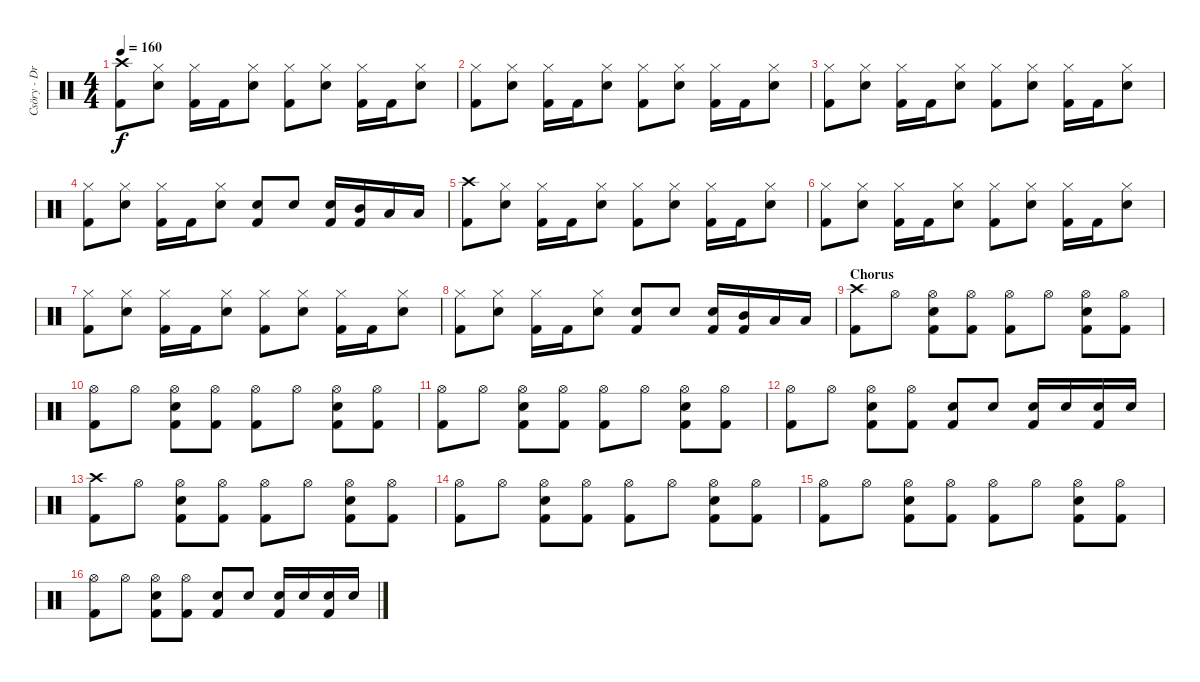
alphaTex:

\track ("Csöry - DrumZ" "Csöry - Dr") {instrument percussion}
\staff {score}
\articulation defaults
\ts (4 4)
\tempo 160
\clef neutral
\ks c
("Crash high (hit)" "Kick (hit) 2").8{dy f} ("Hi-Hat (closed)" "Snare (hit) 2").8 ("Hi-Hat (closed)" "Kick (hit) 2").16 "Kick (hit) 2".16 ("Hi-Hat (closed)" "Snare (hit) 2").8 ("Hi-Hat (closed)" "Kick (hit) 2").8 ("Hi-Hat (closed)" "Snare (hit) 2").8 ("Hi-Hat (closed)" "Kick (hit) 2").16 "Kick (hit) 2".16 ("Hi-Hat (closed)" "Snare (hit) 2").8 |
("Hi-Hat (closed)" "Kick (hit) 2").8 ("Hi-Hat (closed)" "Snare (hit) 2").8 ("Hi-Hat (closed)" "Kick (hit) 2").16 "Kick (hit) 2".16 ("Hi-Hat (closed)" "Snare (hit) 2").8 ("Hi-Hat (closed)" "Kick (hit) 2").8 ("Hi-Hat (closed)" "Snare (hit) 2").8 ("Hi-Hat (closed)" "Kick (hit) 2").16 "Kick (hit) 2".16 ("Hi-Hat (closed)" "Snare (hit) 2").8 |
("Hi-Hat (closed)" "Kick (hit) 2").8 ("Hi-Hat (closed)" "Snare (hit) 2").8 ("Hi-Hat (closed)" "Kick (hit) 2").16 "Kick (hit) 2".16 ("Hi-Hat (closed)" "Snare (hit) 2").8 ("Hi-Hat (closed)" "Kick (hit) 2").8 ("Hi-Hat (closed)" "Snare (hit) 2").8 ("Hi-Hat (closed)" "Kick (hit) 2").16 "Kick (hit) 2".16 ("Hi-Hat (closed)" "Snare (hit) 2").8 |
("Hi-Hat (closed)" "Kick (hit) 2").8 ("Hi-Hat (closed)" "Snare (hit) 2").8 ("Hi-Hat (closed)" "Kick (hit) 2").16 "Kick (hit) 2".16 ("Hi-Hat (closed)" "Snare (hit) 2").8 ("Snare (hit) 2" "Kick (hit) 2").8 "Snare (hit) 2".8 ("Snare (hit) 2" "Kick (hit) 2").16 ("Mid Tom (hit)" "Kick (hit) 2").16 "Low Tom (hit)".16 "Low Floor Tom (hit)".16 |
("Crash high (hit)" "Kick (hit) 2").8 ("Hi-Hat (closed)" "Snare (hit) 2").8 ("Hi-Hat (closed)" "Kick (hit) 2").16 "Kick (hit) 2".16 ("Hi-Hat (closed)" "Snare (hit) 2").8 ("Hi-Hat (closed)" "Kick (hit) 2").8 ("Hi-Hat (closed)" "Snare (hit) 2").8 ("Hi-Hat (closed)" "Kick (hit) 2").16 "Kick (hit) 2".16 ("Hi-Hat (closed)" "Snare (hit) 2").8 |
("Hi-Hat (closed)" "Kick (hit) 2").8 ("Hi-Hat (closed)" "Snare (hit) 2").8 ("Hi-Hat (closed)" "Kick (hit) 2").16 "Kick (hit) 2".16 ("Hi-Hat (closed)" "Snare (hit) 2").8 ("Hi-Hat (closed)" "Kick (hit) 2").8 ("Hi-Hat (closed)" "Snare (hit) 2").8 ("Hi-Hat (closed)" "Kick (hit) 2").16 "Kick (hit) 2".16 ("Hi-Hat (closed)" "Snare (hit) 2").8 |
("Hi-Hat (closed)" "Kick (hit) 2").8 ("Hi-Hat (closed)" "Snare (hit) 2").8 ("Hi-Hat (closed)" "Kick (hit) 2").16 "Kick (hit) 2".16 ("Hi-Hat (closed)" "Snare (hit) 2").8 ("Hi-Hat (closed)" "Kick (hit) 2").8 ("Hi-Hat (closed)" "Snare (hit) 2").8 ("Hi-Hat (closed)" "Kick (hit) 2").16 "Kick (hit) 2".16 ("Hi-Hat (closed)" "Snare (hit) 2").8 |
("Hi-Hat (closed)" "Kick (hit) 2").8 ("Hi-Hat (closed)" "Snare (hit) 2").8 ("Hi-Hat (closed)" "Kick (hit) 2").16 "Kick (hit) 2".16 ("Hi-Hat (closed)" "Snare (hit) 2").8 ("Snare (hit) 2" "Kick (hit) 2").8 "Snare (hit) 2".8 ("Snare (hit) 2" "Kick (hit) 2").16 ("Mid Tom (hit)" "Kick (hit) 2").16 "Low Tom (hit)".16 "Low Floor Tom (hit)".16 |
\section ("" "Chorus")
("Crash high (hit)" "Kick (hit) 2").8 "Hi-Hat (open)".8 ("Hi-Hat (open)" "Snare (hit) 2" "Kick (hit) 2").8 ("Hi-Hat (open)" "Kick (hit) 2").8 ("Hi-Hat (open)" "Kick (hit) 2").8 "Hi-Hat (open)".8 ("Hi-Hat (open)" "Snare (hit) 2" "Kick (hit) 2").8 ("Hi-Hat (open)" "Kick (hit) 2").8 |
("Hi-Hat (open)" "Kick (hit) 2").8 "Hi-Hat (open)".8 ("Hi-Hat (open)" "Snare (hit) 2" "Kick (hit) 2").8 ("Hi-Hat (open)" "Kick (hit) 2").8 ("Hi-Hat (open)" "Kick (hit) 2").8 "Hi-Hat (open)".8 ("Hi-Hat (open)" "Snare (hit) 2" "Kick (hit) 2").8 ("Hi-Hat (open)" "Kick (hit) 2").8 |
("Hi-Hat (open)" "Kick (hit) 2").8 "Hi-Hat (open)".8 ("Hi-Hat (open)" "Snare (hit) 2" "Kick (hit) 2").8 ("Hi-Hat (open)" "Kick (hit) 2").8 ("Hi-Hat (open)" "Kick (hit) 2").8 "Hi-Hat (open)".8 ("Hi-Hat (open)" "Snare (hit) 2" "Kick (hit) 2").8 ("Hi-Hat (open)" "Kick (hit) 2").8 |
("Hi-Hat (open)" "Kick (hit) 2").8 "Hi-Hat (open)".8 ("Hi-Hat (open)" "Snare (hit) 2" "Kick (hit) 2").8 ("Hi-Hat (open)" "Kick (hit) 2").8 ("Snare (hit) 2" "Kick (hit) 2").8 "Snare (hit) 2".8 ("Snare (hit) 2" "Kick (hit) 2").16 "Snare (hit) 2".16 ("Snare (hit) 2" "Kick (hit) 2").16 "Snare (hit) 2".16 |
("Crash high (hit)" "Kick (hit) 2").8 "Hi-Hat (open)".8 ("Hi-Hat (open)" "Snare (hit) 2" "Kick (hit) 2").8 ("Hi-Hat (open)" "Kick (hit) 2").8 ("Hi-Hat (open)" "Kick (hit) 2").8 "Hi-Hat (open)".8 ("Hi-Hat (open)" "Snare (hit) 2" "Kick (hit) 2").8 ("Hi-Hat (open)" "Kick (hit) 2").8 |
("Hi-Hat (open)" "Kick (hit) 2").8 "Hi-Hat (open)".8 ("Hi-Hat (open)" "Snare (hit) 2" "Kick (hit) 2").8 ("Hi-Hat (open)" "Kick (hit) 2").8 ("Hi-Hat (open)" "Kick (hit) 2").8 "Hi-Hat (open)".8 ("Hi-Hat (open)" "Snare (hit) 2" "Kick (hit) 2").8 ("Hi-Hat (open)" "Kick (hit) 2").8 |
("Hi-Hat (open)" "Kick (hit) 2").8 "Hi-Hat (open)".8 ("Hi-Hat (open)" "Snare (hit) 2" "Kick (hit) 2").8 ("Hi-Hat (open)" "Kick (hit) 2").8 ("Hi-Hat (open)" "Kick (hit) 2").8 "Hi-Hat (open)".8 ("Hi-Hat (open)" "Snare (hit) 2" "Kick (hit) 2").8 ("Hi-Hat (open)" "Kick (hit) 2").8 |
("Hi-Hat (open)" "Kick (hit) 2").8 "Hi-Hat (open)".8 ("Hi-Hat (open)" "Snare (hit) 2" "Kick (hit) 2").8 ("Hi-Hat (open)" "Kick (hit) 2").8 ("Snare (hit) 2" "Kick (hit) 2").8 "Snare (hit) 2".8 ("Snare (hit) 2" "Kick (hit) 2").16 "Snare (hit) 2".16 ("Snare (hit) 2" "Kick (hit) 2").16 "Snare (hit) 2".16
